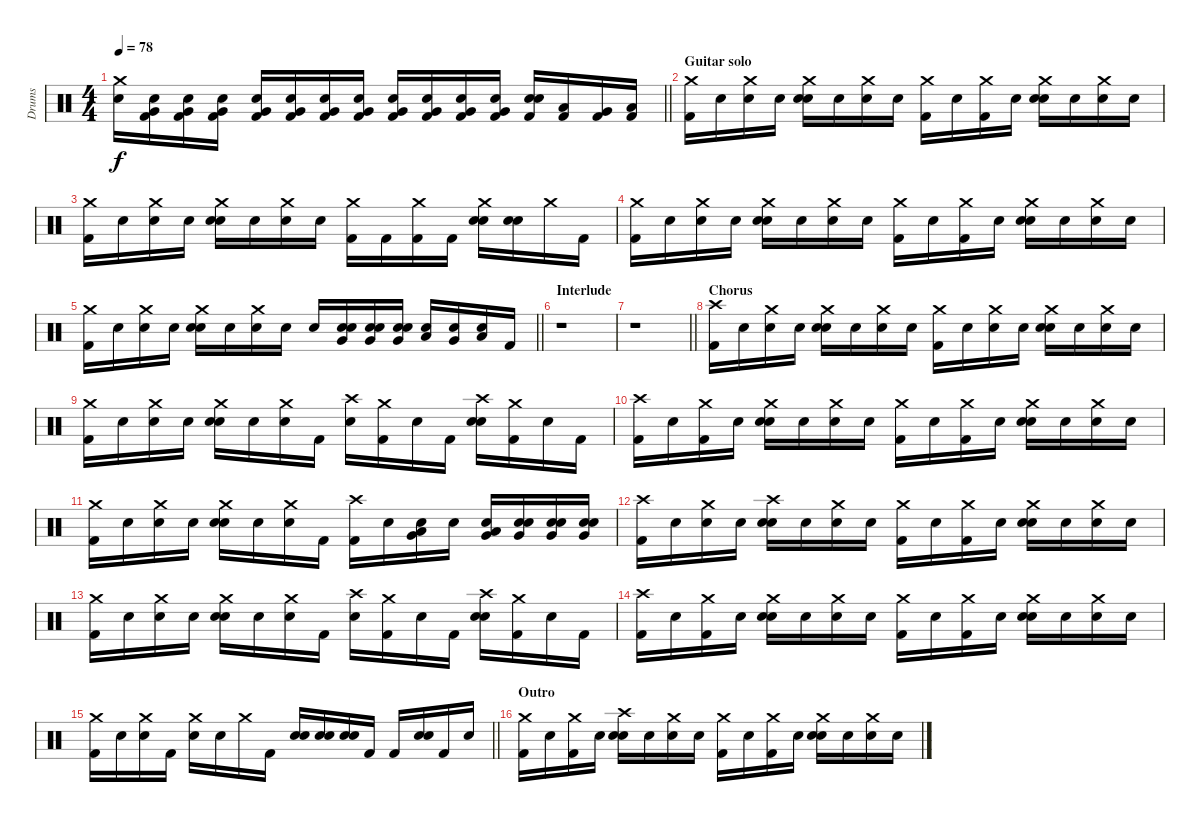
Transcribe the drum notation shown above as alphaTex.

\track ("Drums" "Drums") {instrument percussion}
\staff {score}
\articulation defaults
\ts (4 4)
\tempo 78
\clef neutral
\barLineRight lightlight
\ks c
("Crash medium (hit)" "Snare (hit) 2").16{dy f} ("Very Low Tom (hit)" "Snare (hit) 2" "Kick (hit) 2").16 ("Very Low Tom (hit)" "Snare (hit) 2" "Kick (hit) 2").16 ("Very Low Tom (hit)" "Snare (hit) 2" "Kick (hit) 2").16 ("Very Low Tom (hit)" "Snare (hit) 2" "Kick (hit) 2").16 ("Very Low Tom (hit)" "Snare (hit) 2" "Kick (hit) 2").16 ("Very Low Tom (hit)" "Snare (hit) 2" "Kick (hit) 2").16 ("Very Low Tom (hit)" "Snare (hit) 2" "Kick (hit) 2").16 ("Very Low Tom (hit)" "Snare (hit) 2" "Kick (hit) 2").16 ("Very Low Tom (hit)" "Snare (hit) 2" "Kick (hit) 2").16 ("Very Low Tom (hit)" "Snare (hit) 2" "Kick (hit) 2").16 ("Very Low Tom (hit)" "Snare (hit) 2" "Kick (hit) 2").16 ("Snare (hit) 2" "Snare (hit) 2" "Kick (hit) 2").16 ("Low Tom (hit)" "Kick (hit) 2").16 ("Very Low Tom (hit)" "Kick (hit) 2").16 ("Low Floor Tom (hit)" "Kick (hit) 2").16 |
\section ("" "Guitar solo")
("Crash medium (hit)" "Kick (hit) 2").16 "Snare (hit)".16 ("Crash medium (hit)" "Snare (hit)").16 "Snare (hit)".16 ("Crash medium (hit)" "Snare (hit) 2" "Snare (hit)").16 "Snare (hit)".16 ("Crash medium (hit)" "Snare (hit)").16 "Snare (hit)".16 ("Crash medium (hit)" "Kick (hit) 2").16 "Snare (hit)".16 ("Crash medium (hit)" "Kick (hit) 2").16 "Snare (hit)".16 ("Crash medium (hit)" "Snare (hit) 2" "Snare (hit)").16 "Snare (hit)".16 ("Crash medium (hit)" "Snare (hit)").16 "Snare (hit)".16 |
("Crash medium (hit)" "Kick (hit) 2").16 "Snare (hit)".16 ("Crash medium (hit)" "Snare (hit)").16 "Snare (hit)".16 ("Crash medium (hit)" "Snare (hit) 2" "Snare (hit)").16 "Snare (hit)".16 ("Crash medium (hit)" "Snare (hit)").16 "Snare (hit)".16 ("Crash medium (hit)" "Kick (hit) 2").16 "Kick (hit) 2".16 ("Crash medium (hit)" "Kick (hit) 2").16 "Kick (hit) 2".16 ("Crash medium (hit)" "Snare (hit) 2" "Snare (hit)").16 ("Snare (hit) 2" "Snare (hit)").16 "Crash medium (hit)".16 "Kick (hit) 2".16 |
("Crash medium (hit)" "Kick (hit) 2").16 "Snare (hit)".16 ("Crash medium (hit)" "Snare (hit)").16 "Snare (hit)".16 ("Crash medium (hit)" "Snare (hit) 2" "Snare (hit)").16 "Snare (hit)".16 ("Crash medium (hit)" "Snare (hit)").16 "Snare (hit)".16 ("Crash medium (hit)" "Kick (hit) 2").16 "Snare (hit)".16 ("Crash medium (hit)" "Kick (hit) 2").16 "Snare (hit)".16 ("Crash medium (hit)" "Snare (hit) 2" "Snare (hit)").16 "Snare (hit)".16 ("Crash medium (hit)" "Snare (hit)").16 "Snare (hit)".16 |
\barLineRight lightlight
("Crash medium (hit)" "Kick (hit) 2").16 "Snare (hit)".16 ("Crash medium (hit)" "Snare (hit)").16 "Snare (hit)".16 ("Crash medium (hit)" "Snare (hit) 2" "Snare (hit)").16 "Snare (hit)".16 ("Crash medium (hit)" "Snare (hit)").16 "Snare (hit)".16 "Snare (hit)".16 ("Very Low Tom (hit)" "Snare (hit) 2" "Snare (hit)").16 ("Very Low Tom (hit)" "Snare (hit) 2" "Snare (hit)").16 ("Very Low Tom (hit)" "Snare (hit) 2" "Snare (hit)").16 ("Low Tom (hit)" "Snare (hit)").16 ("Very Low Tom (hit)" "Snare (hit)").16 ("Low Floor Tom (hit)" "Snare (hit)").16 "Kick (hit) 2".16 |
\section ("" "Interlude")
r.1 |
\barLineRight lightlight
r.1 |
\section ("" "Chorus")
("Crash high (hit)" "Kick (hit) 2").16 "Snare (hit)".16 ("Crash medium (hit)" "Snare (hit)").16 "Snare (hit)".16 ("Crash medium (hit)" "Snare (hit) 2" "Snare (hit)").16 "Snare (hit)".16 ("Crash medium (hit)" "Snare (hit)").16 "Snare (hit)".16 ("Crash medium (hit)" "Kick (hit) 2").16 "Snare (hit)".16 ("Crash medium (hit)" "Snare (hit)").16 "Snare (hit)".16 ("Crash medium (hit)" "Snare (hit) 2" "Snare (hit)").16 "Snare (hit)".16 ("Crash medium (hit)" "Snare (hit)").16 "Snare (hit)".16 |
("Crash medium (hit)" "Kick (hit) 2").16 "Snare (hit)".16 ("Crash medium (hit)" "Snare (hit)").16 "Snare (hit)".16 ("Crash medium (hit)" "Snare (hit) 2" "Snare (hit)").16 "Snare (hit)".16 ("Crash medium (hit)" "Snare (hit)").16 "Kick (hit) 2".16 ("Crash high (hit)" "Snare (hit) 2").16 ("Crash medium (hit)" "Kick (hit) 2").16 "Snare (hit)".16 "Kick (hit) 2".16 ("Crash high (hit)" "Snare (hit) 2" "Snare (hit)").16 ("Crash medium (hit)" "Kick (hit) 2").16 "Snare (hit)".16 "Kick (hit) 2".16 |
("Crash high (hit)" "Kick (hit) 2").16 "Snare (hit)".16 ("Crash medium (hit)" "Kick (hit) 2").16 "Snare (hit)".16 ("Crash medium (hit)" "Snare (hit) 2" "Snare (hit)").16 "Snare (hit)".16 ("Crash medium (hit)" "Snare (hit)").16 "Snare (hit)".16 ("Crash medium (hit)" "Kick (hit) 2").16 "Snare (hit)".16 ("Crash medium (hit)" "Kick (hit) 2").16 "Snare (hit)".16 ("Crash medium (hit)" "Snare (hit) 2" "Snare (hit)").16 "Snare (hit)".16 ("Crash medium (hit)" "Snare (hit)").16 "Snare (hit)".16 |
("Crash medium (hit)" "Kick (hit) 2").16 "Snare (hit)".16 ("Crash medium (hit)" "Snare (hit)").16 "Snare (hit)".16 ("Crash medium (hit)" "Snare (hit) 2" "Snare (hit)").16 "Snare (hit)".16 ("Crash medium (hit)" "Snare (hit)").16 "Kick (hit) 2".16 ("Crash high (hit)" "Kick (hit) 2").16 "Snare (hit)".16 ("Low Floor Tom (hit)" "Very Low Tom (hit)" "Snare (hit)").16 "Snare (hit)".16 ("Low Floor Tom (hit)" "Very Low Tom (hit)" "Snare (hit)").16 ("Snare (hit) 2" "Very Low Tom (hit)" "Snare (hit)").16 ("Snare (hit) 2" "Very Low Tom (hit)" "Snare (hit)").16 ("Snare (hit) 2" "Very Low Tom (hit)" "Snare (hit)").16 |
("Crash high (hit)" "Kick (hit) 2").16 "Snare (hit)".16 ("Crash medium (hit)" "Snare (hit)").16 "Snare (hit)".16 ("Crash high (hit)" "Snare (hit) 2" "Snare (hit)").16 "Snare (hit)".16 ("Crash medium (hit)" "Snare (hit)").16 "Snare (hit)".16 ("Crash medium (hit)" "Kick (hit) 2").16 "Snare (hit)".16 ("Crash medium (hit)" "Kick (hit) 2").16 "Snare (hit)".16 ("Crash medium (hit)" "Snare (hit) 2" "Snare (hit)").16 "Snare (hit)".16 ("Crash medium (hit)" "Snare (hit)").16 "Snare (hit)".16 |
("Crash medium (hit)" "Kick (hit) 2").16 "Snare (hit)".16 ("Crash medium (hit)" "Snare (hit)").16 "Snare (hit)".16 ("Crash medium (hit)" "Snare (hit) 2" "Snare (hit)").16 "Snare (hit)".16 ("Crash medium (hit)" "Snare (hit)").16 "Kick (hit) 2".16 ("Crash high (hit)" "Snare (hit) 2").16 ("Crash medium (hit)" "Kick (hit) 2").16 "Snare (hit)".16 "Kick (hit) 2".16 ("Crash high (hit)" "Snare (hit) 2" "Snare (hit)").16 ("Crash medium (hit)" "Kick (hit) 2").16 "Snare (hit)".16 "Kick (hit) 2".16 |
("Crash high (hit)" "Kick (hit) 2").16 "Snare (hit)".16 ("Crash medium (hit)" "Kick (hit) 2").16 "Snare (hit)".16 ("Crash medium (hit)" "Snare (hit) 2" "Snare (hit)").16 "Snare (hit)".16 ("Crash medium (hit)" "Snare (hit)").16 "Snare (hit)".16 ("Crash medium (hit)" "Kick (hit) 2").16 "Snare (hit)".16 ("Crash medium (hit)" "Kick (hit) 2").16 "Snare (hit)".16 ("Crash medium (hit)" "Snare (hit) 2" "Snare (hit)").16 "Snare (hit)".16 ("Crash medium (hit)" "Snare (hit)").16 "Snare (hit)".16 |
\barLineRight lightlight
("Crash medium (hit)" "Kick (hit) 2").16 "Snare (hit)".16 ("Crash medium (hit)" "Snare (hit)").16 "Kick (hit) 2".16 ("Crash medium (hit)" "Snare (hit) 2").16 "Snare (hit)".16 "Crash medium (hit)".16 "Kick (hit) 2".16 ("Snare (hit) 2" "Snare (hit)").16 ("Snare (hit) 2" "Snare (hit)").16 ("Snare (hit) 2" "Snare (hit)").16 "Kick (hit) 2".16 "Kick (hit) 2".16 ("Snare (hit) 2" "Snare (hit)").16 "Kick (hit) 2".16 "Snare (hit) 2".16 |
\section ("" "Outro")
("Crash medium (hit)" "Kick (hit) 2").16 "Snare (hit)".16 ("Crash medium (hit)" "Kick (hit) 2").16 "Snare (hit)".16 ("Crash high (hit)" "Snare (hit) 2" "Snare (hit)").16 "Snare (hit)".16 ("Crash medium (hit)" "Snare (hit)").16 "Snare (hit)".16 ("Crash medium (hit)" "Kick (hit) 2").16 "Snare (hit)".16 ("Crash medium (hit)" "Kick (hit) 2").16 "Snare (hit)".16 ("Crash medium (hit)" "Snare (hit) 2" "Snare (hit)").16 "Snare (hit)".16 ("Crash medium (hit)" "Snare (hit)").16 "Snare (hit)".16
